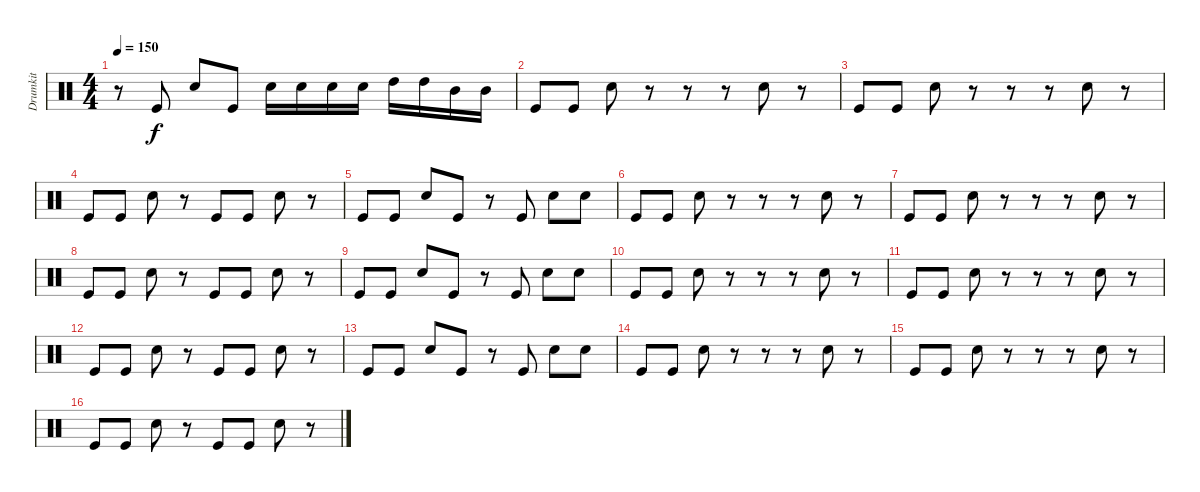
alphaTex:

\track ("Drumkit" "Drumkit") {instrument percussion}
\staff {score}
\articulation defaults
\ts (4 4)
\tempo 150
\clef neutral
\ks c
r.8{dy f} "Kick (hit)".8 "Snare (hit) 2".8 "Kick (hit)".8 "Snare (hit) 2".16 "Snare (hit) 2".16 "Snare (hit) 2".16 "Snare (hit) 2".16 "High Tom (hit)".16 "High Tom (hit)".16 "Mid Tom (hit)".16 "Mid Tom (hit)".16 |
"Kick (hit)".8 "Kick (hit)".8 "Snare (hit) 2".8 r.8 r.8 r.8 "Snare (hit) 2".8 r.8 |
"Kick (hit)".8 "Kick (hit)".8 "Snare (hit) 2".8 r.8 r.8 r.8 "Snare (hit) 2".8 r.8 |
"Kick (hit)".8 "Kick (hit)".8 "Snare (hit) 2".8 r.8 "Kick (hit)".8 "Kick (hit)".8 "Snare (hit) 2".8 r.8 |
"Kick (hit)".8 "Kick (hit)".8 "Snare (hit) 2".8 "Kick (hit)".8 r.8 "Kick (hit)".8 "Snare (hit) 2".8 "Snare (hit) 2".8 |
"Kick (hit)".8 "Kick (hit)".8 "Snare (hit) 2".8 r.8 r.8 r.8 "Snare (hit) 2".8 r.8 |
"Kick (hit)".8 "Kick (hit)".8 "Snare (hit) 2".8 r.8 r.8 r.8 "Snare (hit) 2".8 r.8 |
"Kick (hit)".8 "Kick (hit)".8 "Snare (hit) 2".8 r.8 "Kick (hit)".8 "Kick (hit)".8 "Snare (hit) 2".8 r.8 |
"Kick (hit)".8 "Kick (hit)".8 "Snare (hit) 2".8 "Kick (hit)".8 r.8 "Kick (hit)".8 "Snare (hit) 2".8 "Snare (hit) 2".8 |
"Kick (hit)".8 "Kick (hit)".8 "Snare (hit) 2".8 r.8 r.8 r.8 "Snare (hit) 2".8 r.8 |
"Kick (hit)".8 "Kick (hit)".8 "Snare (hit) 2".8 r.8 r.8 r.8 "Snare (hit) 2".8 r.8 |
"Kick (hit)".8 "Kick (hit)".8 "Snare (hit) 2".8 r.8 "Kick (hit)".8 "Kick (hit)".8 "Snare (hit) 2".8 r.8 |
"Kick (hit)".8 "Kick (hit)".8 "Snare (hit) 2".8 "Kick (hit)".8 r.8 "Kick (hit)".8 "Snare (hit) 2".8 "Snare (hit) 2".8 |
"Kick (hit)".8 "Kick (hit)".8 "Snare (hit) 2".8 r.8 r.8 r.8 "Snare (hit) 2".8 r.8 |
"Kick (hit)".8 "Kick (hit)".8 "Snare (hit) 2".8 r.8 r.8 r.8 "Snare (hit) 2".8 r.8 |
"Kick (hit)".8 "Kick (hit)".8 "Snare (hit) 2".8 r.8 "Kick (hit)".8 "Kick (hit)".8 "Snare (hit) 2".8 r.8
